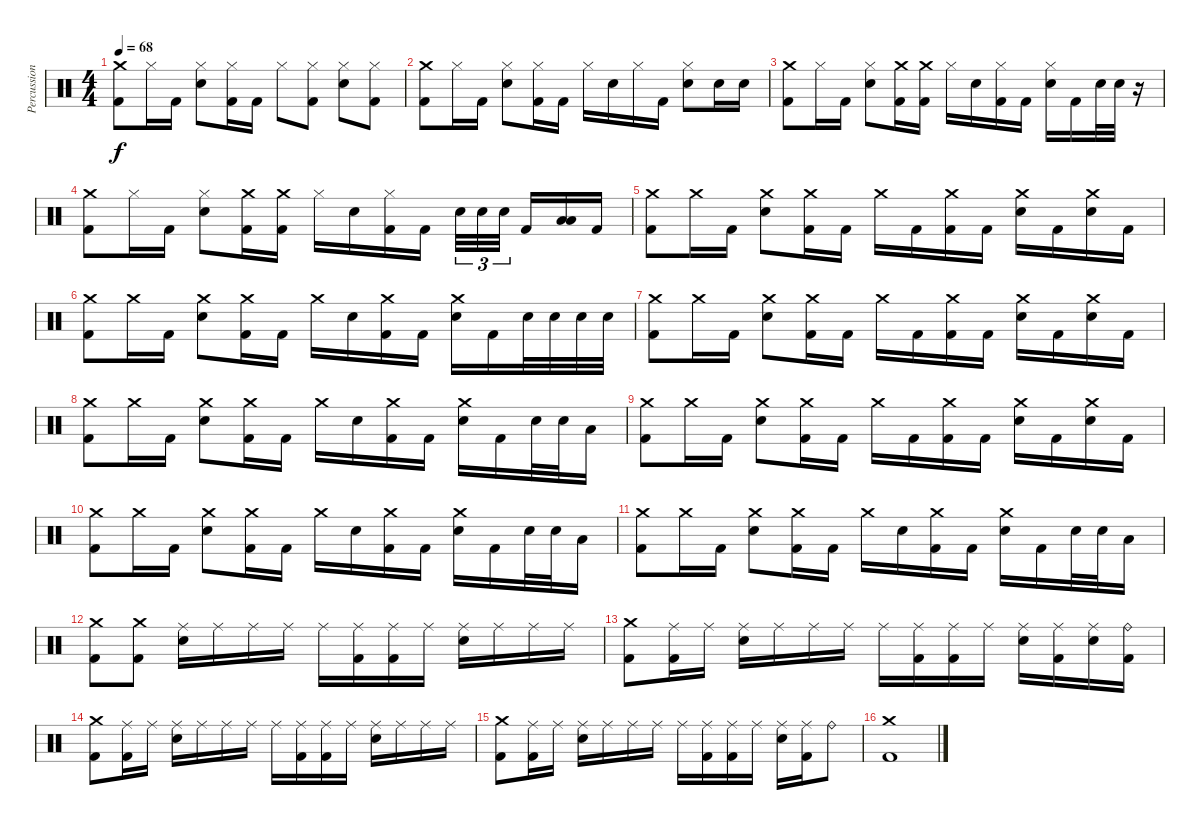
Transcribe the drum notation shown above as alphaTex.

\track ("Percussion" "Percussion") {instrument percussion}
\staff {score}
\articulation defaults
\ts (4 4)
\tempo 68
\clef neutral
\ks c
("Crash medium (hit)" "Kick (hit) 2").8{dy f} "Hi-Hat (closed)".16 "Kick (hit) 2".16 ("Hi-Hat (closed)" "Electric Snare (hit)").8 ("Hi-Hat (closed)" "Kick (hit) 2").16 "Kick (hit) 2".16 "Hi-Hat (closed)".8 ("Hi-Hat (closed)" "Kick (hit) 2").8 ("Hi-Hat (closed)" "Electric Snare (hit)").8 ("Hi-Hat (closed)" "Kick (hit) 2").8 |
("Crash medium (hit)" "Kick (hit) 2").8 "Hi-Hat (closed)".16 "Kick (hit) 2".16 ("Hi-Hat (closed)" "Electric Snare (hit)").8 ("Hi-Hat (closed)" "Kick (hit) 2").16 "Kick (hit) 2".16 "Hi-Hat (closed)".16 "Electric Snare (hit)".16 "Hi-Hat (closed)".16 "Kick (hit) 2".16 ("Hi-Hat (closed)" "Electric Snare (hit)").8 "Electric Snare (hit)".16 "Electric Snare (hit)".16 |
("Crash medium (hit)" "Kick (hit) 2").8 "Hi-Hat (closed)".16 "Kick (hit) 2".16 ("Hi-Hat (closed)" "Electric Snare (hit)").8 ("Crash medium (hit)" "Kick (hit) 2").16 ("Crash medium (hit)" "Kick (hit) 2").16 "Hi-Hat (closed)".16 "Electric Snare (hit)".16 ("Hi-Hat (closed)" "Kick (hit) 2").16 "Kick (hit) 2".16 ("Hi-Hat (closed)" "Electric Snare (hit)").16 "Kick (hit) 2".16 "Electric Snare (hit)".32 "Electric Snare (hit)".32 r.16 |
("Crash medium (hit)" "Kick (hit) 2").8 "Hi-Hat (closed)".16 "Kick (hit) 2".16 ("Hi-Hat (closed)" "Electric Snare (hit)").8 ("Crash medium (hit)" "Kick (hit) 2").16 ("Crash medium (hit)" "Kick (hit) 2").16 "Hi-Hat (closed)".16 "Electric Snare (hit)".16 ("Hi-Hat (closed)" "Kick (hit) 2").16 "Kick (hit) 2".16 "Electric Snare (hit)".32{tu (3 2)} "Electric Snare (hit)".32{tu (3 2)} "Electric Snare (hit)".32{tu (3 2) beam splitsecondary} "Kick (hit) 2".16 ("Low Tom (hit)" "Low Floor Tom (hit)").16 "Kick (hit) 2".16 |
("Crash medium (hit)" "Kick (hit) 2").8 "Crash medium (hit)".16 "Kick (hit) 2".16 ("Crash medium (hit)" "Electric Snare (hit)").8 ("Crash medium (hit)" "Kick (hit) 2").16 "Kick (hit) 2".16 "Crash medium (hit)".16 "Kick (hit) 2".16 ("Crash medium (hit)" "Kick (hit) 2").16 "Kick (hit) 2".16 ("Crash medium (hit)" "Electric Snare (hit)").16 "Kick (hit) 2".16 ("Crash medium (hit)" "Electric Snare (hit)").16 "Kick (hit) 2".16 |
("Crash medium (hit)" "Kick (hit) 2").8 "Crash medium (hit)".16 "Kick (hit) 2".16 ("Crash medium (hit)" "Electric Snare (hit)").8 ("Crash medium (hit)" "Kick (hit) 2").16 "Kick (hit) 2".16 "Crash medium (hit)".16 "Electric Snare (hit)".16 ("Crash medium (hit)" "Kick (hit) 2").16 "Kick (hit) 2".16 ("Crash medium (hit)" "Electric Snare (hit)").16 "Kick (hit) 2".16 "Electric Snare (hit)".32 "Electric Snare (hit)".32 "Electric Snare (hit)".32 "Electric Snare (hit)".32 |
("Crash medium (hit)" "Kick (hit) 2").8 "Crash medium (hit)".16 "Kick (hit) 2".16 ("Crash medium (hit)" "Electric Snare (hit)").8 ("Crash medium (hit)" "Kick (hit) 2").16 "Kick (hit) 2".16 "Crash medium (hit)".16 "Kick (hit) 2".16 ("Crash medium (hit)" "Kick (hit) 2").16 "Kick (hit) 2".16 ("Crash medium (hit)" "Electric Snare (hit)").16 "Kick (hit) 2".16 ("Crash medium (hit)" "Electric Snare (hit)").16 "Kick (hit) 2".16 |
("Crash medium (hit)" "Kick (hit) 2").8 "Crash medium (hit)".16 "Kick (hit) 2".16 ("Crash medium (hit)" "Electric Snare (hit)").8 ("Crash medium (hit)" "Kick (hit) 2").16 "Kick (hit) 2".16 "Crash medium (hit)".16 "Electric Snare (hit)".16 ("Crash medium (hit)" "Kick (hit) 2").16 "Kick (hit) 2".16 ("Crash medium (hit)" "Electric Snare (hit)").16 "Kick (hit) 2".16 "Electric Snare (hit)".32 "Electric Snare (hit)".32 "Low Tom (hit)".16 |
("Crash medium (hit)" "Kick (hit) 2").8 "Crash medium (hit)".16 "Kick (hit) 2".16 ("Crash medium (hit)" "Electric Snare (hit)").8 ("Crash medium (hit)" "Kick (hit) 2").16 "Kick (hit) 2".16 "Crash medium (hit)".16 "Kick (hit) 2".16 ("Crash medium (hit)" "Kick (hit) 2").16 "Kick (hit) 2".16 ("Crash medium (hit)" "Electric Snare (hit)").16 "Kick (hit) 2".16 ("Crash medium (hit)" "Electric Snare (hit)").16 "Kick (hit) 2".16 |
("Crash medium (hit)" "Kick (hit) 2").8 "Crash medium (hit)".16 "Kick (hit) 2".16 ("Crash medium (hit)" "Electric Snare (hit)").8 ("Crash medium (hit)" "Kick (hit) 2").16 "Kick (hit) 2".16 "Crash medium (hit)".16 "Electric Snare (hit)".16 ("Crash medium (hit)" "Kick (hit) 2").16 "Kick (hit) 2".16 ("Crash medium (hit)" "Electric Snare (hit)").16 "Kick (hit) 2".16 "Electric Snare (hit)".32 "Electric Snare (hit)".32 "Low Tom (hit)".16 |
("Crash medium (hit)" "Kick (hit) 2").8 "Crash medium (hit)".16 "Kick (hit) 2".16 ("Crash medium (hit)" "Electric Snare (hit)").8 ("Crash medium (hit)" "Kick (hit) 2").16 "Kick (hit) 2".16 "Crash medium (hit)".16 "Electric Snare (hit)".16 ("Crash medium (hit)" "Kick (hit) 2").16 "Kick (hit) 2".16 ("Crash medium (hit)" "Electric Snare (hit)").16 "Kick (hit) 2".16 "Electric Snare (hit)".32 "Electric Snare (hit)".32 "Low Tom (hit)".16 |
("Crash medium (hit)" "Kick (hit) 2").8 ("Crash medium (hit)" "Kick (hit) 2").8 ("Ride (middle)" "Electric Snare (hit)").16 "Ride (middle)".16 "Ride (middle)".16 "Ride (middle)".16 "Ride (middle)".16 ("Ride (middle)" "Kick (hit) 2").16 ("Ride (middle)" "Kick (hit) 2").16 "Ride (middle)".16 ("Ride (middle)" "Electric Snare (hit)").16 "Ride (middle)".16 "Ride (middle)".16 "Ride (middle)".16 |
("Crash medium (hit)" "Kick (hit) 2").8 ("Ride (middle)" "Kick (hit) 2").16 "Ride (middle)".16 ("Ride (middle)" "Electric Snare (hit)").16 "Ride (middle)".16 "Ride (middle)".16 "Ride (middle)".16 "Ride (middle)".16 ("Ride (middle)" "Kick (hit) 2").16 ("Ride (middle)" "Kick (hit) 2").16 "Ride (middle)".16 ("Ride (middle)" "Electric Snare (hit)").16 ("Ride (middle)" "Kick (hit) 2").16 ("Ride (middle)" "Electric Snare (hit)").16 ("Ride (bell)" "Kick (hit) 2").16 |
("Crash medium (hit)" "Kick (hit) 2").8 ("Ride (middle)" "Kick (hit) 2").16 "Ride (middle)".16 ("Ride (middle)" "Electric Snare (hit)").16 "Ride (middle)".16 "Ride (middle)".16 "Ride (middle)".16 "Ride (middle)".16 ("Ride (middle)" "Kick (hit) 2").16 ("Ride (middle)" "Kick (hit) 2").16 "Ride (middle)".16 ("Ride (middle)" "Electric Snare (hit)").16 "Ride (middle)".16 "Ride (middle)".16 "Ride (middle)".16 |
("Crash medium (hit)" "Kick (hit) 2").8 ("Ride (middle)" "Kick (hit) 2").16 "Ride (middle)".16 ("Ride (middle)" "Electric Snare (hit)").16 "Ride (middle)".16 "Ride (middle)".16 "Ride (middle)".16 "Ride (middle)".16 ("Ride (middle)" "Kick (hit) 2").16 ("Ride (middle)" "Kick (hit) 2").16 "Ride (middle)".16 ("Ride (middle)" "Electric Snare (hit)").16 ("Ride (middle)" "Kick (hit) 2").16 "Ride (bell)".8 |
("Crash medium (hit)" "Kick (hit) 2").1
